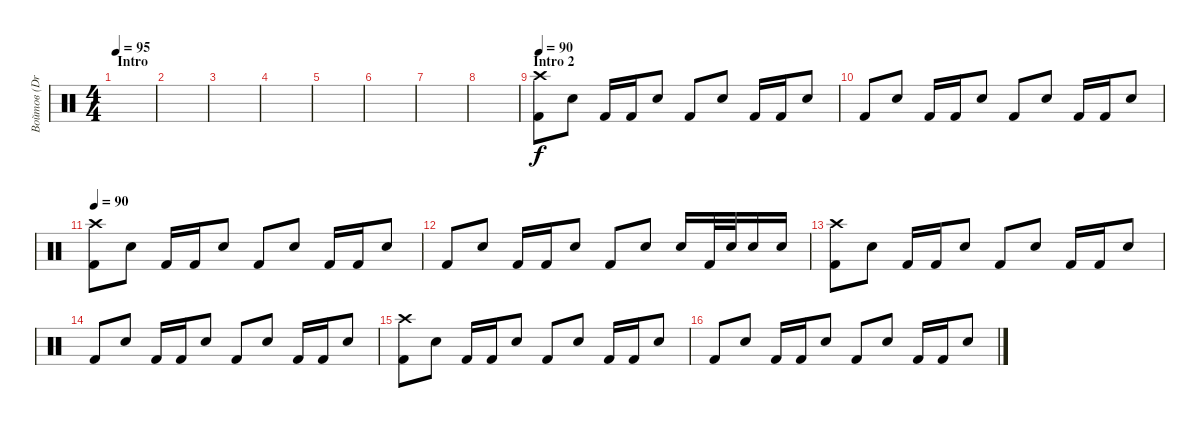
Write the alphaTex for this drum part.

\track ("Войтов (Drums)" "Войтов (Dr") {instrument percussion}
\staff {score}
\articulation defaults
\ts (4 4)
\section ("" "Intro")
\tempo 95
\clef neutral
\ks c
|
|
|
|
|
|
|
|
\section ("" "Intro 2")
\tempo 90
("Kick (hit) 2" "Crash high (hit)").8 "Electric Snare (hit)".8 "Kick (hit) 2".16 "Kick (hit) 2".16 "Electric Snare (hit)".8 "Kick (hit) 2".8 "Electric Snare (hit)".8 "Kick (hit) 2".16 "Kick (hit) 2".16 "Electric Snare (hit)".8 |
"Kick (hit) 2".8 "Electric Snare (hit)".8 "Kick (hit) 2".16 "Kick (hit) 2".16 "Electric Snare (hit)".8 "Kick (hit) 2".8 "Electric Snare (hit)".8 "Kick (hit) 2".16 "Kick (hit) 2".16 "Electric Snare (hit)".8 |
\tempo 90
("Kick (hit) 2" "Crash high (hit)").8 "Electric Snare (hit)".8 "Kick (hit) 2".16 "Kick (hit) 2".16 "Electric Snare (hit)".8 "Kick (hit) 2".8 "Electric Snare (hit)".8 "Kick (hit) 2".16 "Kick (hit) 2".16 "Electric Snare (hit)".8 |
"Kick (hit) 2".8 "Electric Snare (hit)".8 "Kick (hit) 2".16 "Kick (hit) 2".16 "Electric Snare (hit)".8 "Kick (hit) 2".8 "Electric Snare (hit)".8 "Electric Snare (hit)".16 "Kick (hit) 2".32 "Electric Snare (hit)".32 "Electric Snare (hit)".16 "Electric Snare (hit)".16 |
("Kick (hit) 2" "Crash high (hit)").8 "Electric Snare (hit)".8 "Kick (hit) 2".16 "Kick (hit) 2".16 "Electric Snare (hit)".8 "Kick (hit) 2".8 "Electric Snare (hit)".8 "Kick (hit) 2".16 "Kick (hit) 2".16 "Electric Snare (hit)".8 |
"Kick (hit) 2".8 "Electric Snare (hit)".8 "Kick (hit) 2".16 "Kick (hit) 2".16 "Electric Snare (hit)".8 "Kick (hit) 2".8 "Electric Snare (hit)".8 "Kick (hit) 2".16 "Kick (hit) 2".16 "Electric Snare (hit)".8 |
("Kick (hit) 2" "Crash high (hit)").8 "Electric Snare (hit)".8 "Kick (hit) 2".16 "Kick (hit) 2".16 "Electric Snare (hit)".8 "Kick (hit) 2".8 "Electric Snare (hit)".8 "Kick (hit) 2".16 "Kick (hit) 2".16 "Electric Snare (hit)".8 |
"Kick (hit) 2".8 "Electric Snare (hit)".8 "Kick (hit) 2".16 "Kick (hit) 2".16 "Electric Snare (hit)".8 "Kick (hit) 2".8 "Electric Snare (hit)".8 "Kick (hit) 2".16 "Kick (hit) 2".16 "Electric Snare (hit)".8
